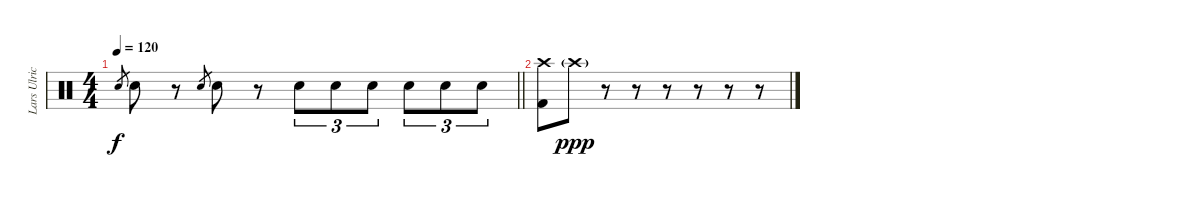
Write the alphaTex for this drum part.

\track ("Lars Ulrich" "Lars Ulric") {instrument percussion}
\staff {score}
\articulation defaults
\ts (4 4)
\tempo 120
\clef neutral
\barLineRight lightlight
\ks c "Snare (hit) 2".8{gr dy f} "Snare (hit) 2".8
r.8 "Snare (hit) 2".8{gr} "Snare (hit) 2".8 r.8 "Snare (hit) 2".8{tu (3 2)} "Snare (hit) 2".8{tu (3 2)} "Snare (hit) 2".8{tu (3 2)} "Snare (hit) 2".8{tu (3 2)} "Snare (hit) 2".8{tu (3 2)} "Snare (hit) 2".8{tu (3 2)} |
("Crash high (hit)" "Kick (hit) 2").8 "Crash high (hit)"{g}.8{dy ppp} r.8 r.8 r.8 r.8 r.8 r.8
